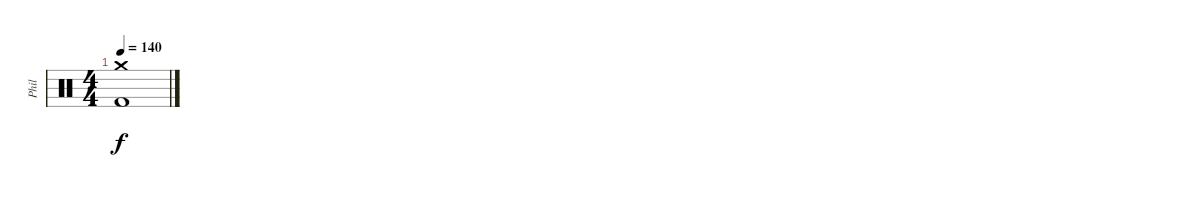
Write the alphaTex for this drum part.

\track ("Phil" "Phil") {instrument percussion}
\staff {score}
\articulation defaults
\ts (4 4)
\tempo 140
\clef neutral
\ks c
("Crash medium (hit)" "Kick (hit) 2").1{dy f}
